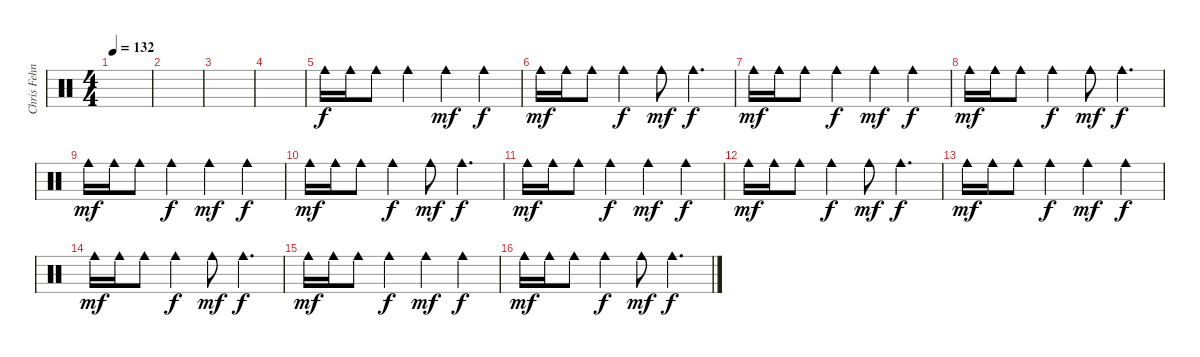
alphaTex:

\track ("Chris Fehn" "Chris Fehn") {instrument percussion}
\staff {score}
\articulation defaults
\ts (4 4)
\tempo 132
\clef neutral
\ks c
|
|
|
|
"Cowbell medium (hit)".16 "Cowbell medium (hit)".16 "Cowbell medium (hit)".8 "Cowbell medium (hit)".4{dy f} "Cowbell medium (hit)".4{dy mf} "Cowbell medium (hit)".4{dy f} |
"Cowbell medium (hit)".16{dy mf} "Cowbell medium (hit)".16 "Cowbell medium (hit)".8 "Cowbell medium (hit)".4{dy f} "Cowbell medium (hit)".8{dy mf} "Cowbell medium (hit)".4{d dy f} |
"Cowbell medium (hit)".16{dy mf} "Cowbell medium (hit)".16 "Cowbell medium (hit)".8 "Cowbell medium (hit)".4{dy f} "Cowbell medium (hit)".4{dy mf} "Cowbell medium (hit)".4{dy f} |
"Cowbell medium (hit)".16{dy mf} "Cowbell medium (hit)".16 "Cowbell medium (hit)".8 "Cowbell medium (hit)".4{dy f} "Cowbell medium (hit)".8{dy mf} "Cowbell medium (hit)".4{d dy f} |
"Cowbell medium (hit)".16{dy mf} "Cowbell medium (hit)".16 "Cowbell medium (hit)".8 "Cowbell medium (hit)".4{dy f} "Cowbell medium (hit)".4{dy mf} "Cowbell medium (hit)".4{dy f} |
"Cowbell medium (hit)".16{dy mf} "Cowbell medium (hit)".16 "Cowbell medium (hit)".8 "Cowbell medium (hit)".4{dy f} "Cowbell medium (hit)".8{dy mf} "Cowbell medium (hit)".4{d dy f} |
"Cowbell medium (hit)".16{dy mf} "Cowbell medium (hit)".16 "Cowbell medium (hit)".8 "Cowbell medium (hit)".4{dy f} "Cowbell medium (hit)".4{dy mf} "Cowbell medium (hit)".4{dy f} |
"Cowbell medium (hit)".16{dy mf} "Cowbell medium (hit)".16 "Cowbell medium (hit)".8 "Cowbell medium (hit)".4{dy f} "Cowbell medium (hit)".8{dy mf} "Cowbell medium (hit)".4{d dy f} |
"Cowbell medium (hit)".16{dy mf} "Cowbell medium (hit)".16 "Cowbell medium (hit)".8 "Cowbell medium (hit)".4{dy f} "Cowbell medium (hit)".4{dy mf} "Cowbell medium (hit)".4{dy f} |
"Cowbell medium (hit)".16{dy mf} "Cowbell medium (hit)".16 "Cowbell medium (hit)".8 "Cowbell medium (hit)".4{dy f} "Cowbell medium (hit)".8{dy mf} "Cowbell medium (hit)".4{d dy f} |
"Cowbell medium (hit)".16{dy mf} "Cowbell medium (hit)".16 "Cowbell medium (hit)".8 "Cowbell medium (hit)".4{dy f} "Cowbell medium (hit)".4{dy mf} "Cowbell medium (hit)".4{dy f} |
"Cowbell medium (hit)".16{dy mf} "Cowbell medium (hit)".16 "Cowbell medium (hit)".8 "Cowbell medium (hit)".4{dy f} "Cowbell medium (hit)".8{dy mf} "Cowbell medium (hit)".4{d dy f}
